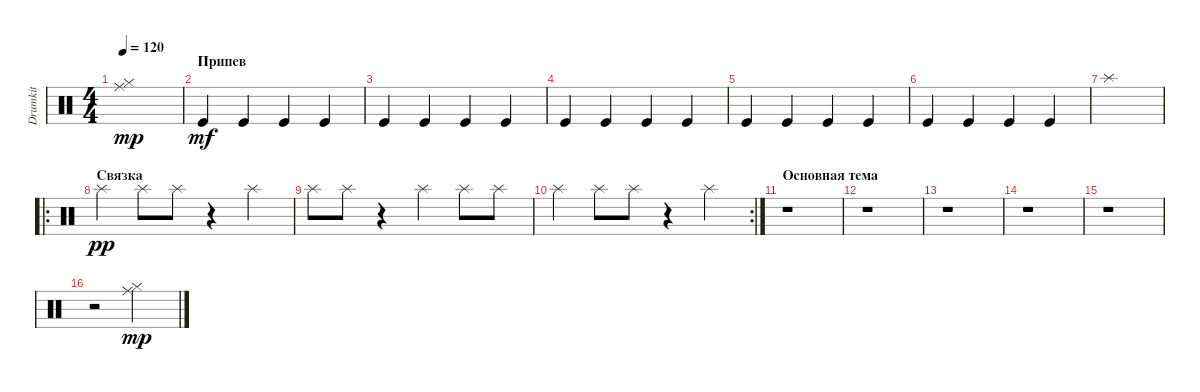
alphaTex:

\track ("Drumkit" "Drumkit") {instrument percussion}
\staff {score}
\articulation defaults
\ts (4 4)
\tempo 120
\clef neutral
\ks c
("Hi-Hat (closed)" "Ride (middle)").1{dy mp} |
\section ("" "Припев")
"Kick (hit)".4{dy mf} "Kick (hit)".4 "Kick (hit)".4 "Kick (hit)".4 |
"Kick (hit)".4 "Kick (hit)".4 "Kick (hit)".4 "Kick (hit)".4 |
"Kick (hit)".4 "Kick (hit)".4 "Kick (hit)".4 "Kick (hit)".4 |
"Kick (hit)".4 "Kick (hit)".4 "Kick (hit)".4 "Kick (hit)".4 |
"Kick (hit)".4 "Kick (hit)".4 "Kick (hit)".4 "Kick (hit)".4 |
"Splash (hit)".1 |
\ro
\section ("" "Связка")
"Splash (hit)".4{dy pp} "Splash (hit)".8 "Splash (hit)".8 r.4 "Splash (hit)".4 |
"Splash (hit)".8 "Splash (hit)".8 r.4 "Splash (hit)".4 "Splash (hit)".8 "Splash (hit)".8 |
\rc 2 "Splash (hit)".4 "Splash (hit)".8 "Splash (hit)".8
r.4 "Splash (hit)".4 |
\section ("" "Основная тема")
r.1 |
r.1 |
r.1 |
r.1 |
r.1 |
r.2 ("Hi-Hat (closed)" "Ride (middle)").2{dy mp}
